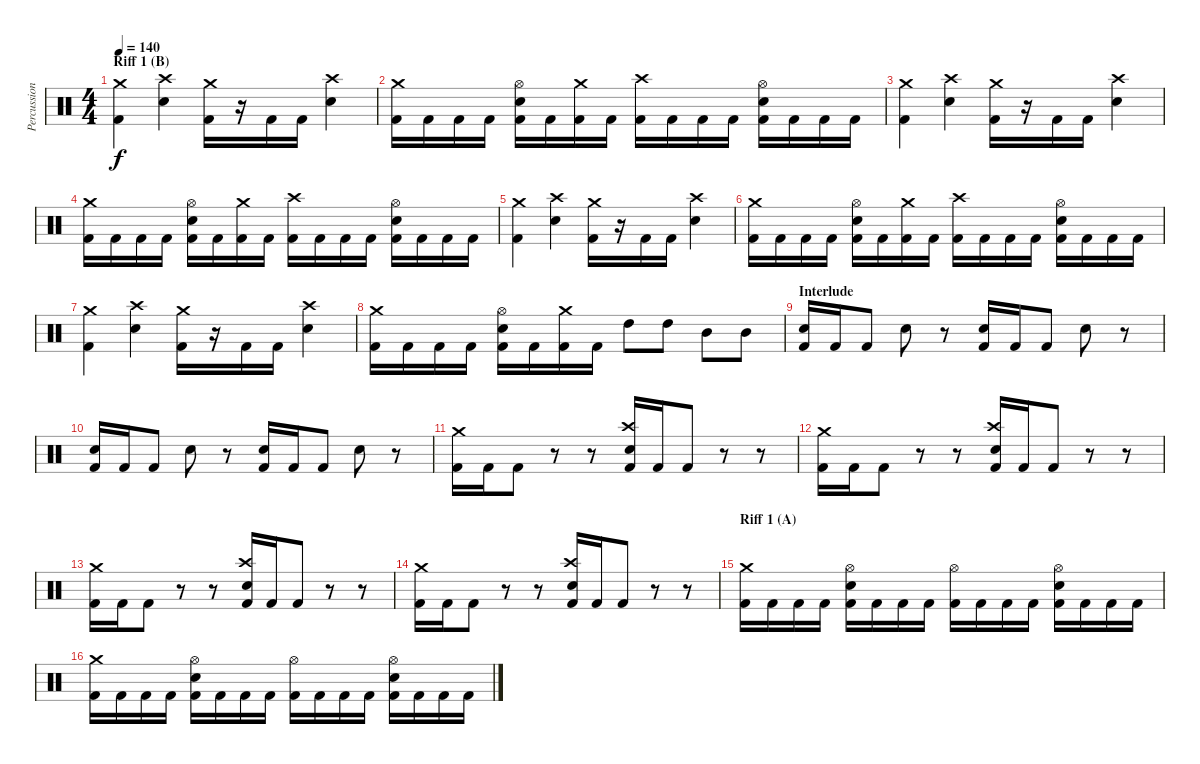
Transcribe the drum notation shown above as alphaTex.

\track ("Percussions" "Percussion") {instrument percussion}
\staff {score}
\articulation defaults
\ts (4 4)
\section ("" "Riff 1 (B)")
\tempo 140
\clef neutral
\ks c
("Crash medium (hit)" "Kick (hit) 2").4{dy f} ("Crash high (hit)" "Snare (hit) 2").4 ("Crash medium (hit)" "Kick (hit) 2").16 r.16 "Kick (hit) 2".16 "Kick (hit) 2".16 ("Crash high (hit)" "Snare (hit) 2").4 |
("Crash medium (hit)" "Kick (hit) 2").16 "Kick (hit) 2".16 "Kick (hit) 2".16 "Kick (hit) 2".16 ("Hi-Hat (open)" "Snare (hit) 2" "Kick (hit) 2").16 "Kick (hit) 2".16 ("Crash medium (hit)" "Kick (hit) 2").16 "Kick (hit) 2".16 ("Crash high (hit)" "Kick (hit) 2").16 "Kick (hit) 2".16 "Kick (hit) 2".16 "Kick (hit) 2".16 ("Hi-Hat (open)" "Snare (hit) 2" "Kick (hit) 2").16 "Kick (hit) 2".16 "Kick (hit) 2".16 "Kick (hit) 2".16 |
("Crash medium (hit)" "Kick (hit) 2").4 ("Crash high (hit)" "Snare (hit) 2").4 ("Crash medium (hit)" "Kick (hit) 2").16 r.16 "Kick (hit) 2".16 "Kick (hit) 2".16 ("Crash high (hit)" "Snare (hit) 2").4 |
("Crash medium (hit)" "Kick (hit) 2").16 "Kick (hit) 2".16 "Kick (hit) 2".16 "Kick (hit) 2".16 ("Hi-Hat (open)" "Snare (hit) 2" "Kick (hit) 2").16 "Kick (hit) 2".16 ("Crash medium (hit)" "Kick (hit) 2").16 "Kick (hit) 2".16 ("Crash high (hit)" "Kick (hit) 2").16 "Kick (hit) 2".16 "Kick (hit) 2".16 "Kick (hit) 2".16 ("Hi-Hat (open)" "Snare (hit) 2" "Kick (hit) 2").16 "Kick (hit) 2".16 "Kick (hit) 2".16 "Kick (hit) 2".16 |
("Crash medium (hit)" "Kick (hit) 2").4 ("Crash high (hit)" "Snare (hit) 2").4 ("Crash medium (hit)" "Kick (hit) 2").16 r.16 "Kick (hit) 2".16 "Kick (hit) 2".16 ("Crash high (hit)" "Snare (hit) 2").4 |
("Crash medium (hit)" "Kick (hit) 2").16 "Kick (hit) 2".16 "Kick (hit) 2".16 "Kick (hit) 2".16 ("Hi-Hat (open)" "Snare (hit) 2" "Kick (hit) 2").16 "Kick (hit) 2".16 ("Crash medium (hit)" "Kick (hit) 2").16 "Kick (hit) 2".16 ("Crash high (hit)" "Kick (hit) 2").16 "Kick (hit) 2".16 "Kick (hit) 2".16 "Kick (hit) 2".16 ("Hi-Hat (open)" "Snare (hit) 2" "Kick (hit) 2").16 "Kick (hit) 2".16 "Kick (hit) 2".16 "Kick (hit) 2".16 |
("Crash medium (hit)" "Kick (hit) 2").4 ("Crash high (hit)" "Snare (hit) 2").4 ("Crash medium (hit)" "Kick (hit) 2").16 r.16 "Kick (hit) 2".16 "Kick (hit) 2".16 ("Crash high (hit)" "Snare (hit) 2").4 |
("Crash medium (hit)" "Kick (hit) 2").16 "Kick (hit) 2".16 "Kick (hit) 2".16 "Kick (hit) 2".16 ("Hi-Hat (open)" "Snare (hit) 2" "Kick (hit) 2").16 "Kick (hit) 2".16 ("Crash medium (hit)" "Kick (hit) 2").16 "Kick (hit) 2".16 "High Tom (hit)".8 "High Tom (hit)".8 "Mid Tom (hit)".8 "Mid Tom (hit)".8 |
\section ("" "Interlude")
("Snare (hit) 2" "Kick (hit) 2").16 "Kick (hit) 2".16 "Kick (hit) 2".8 "Snare (hit) 2".8 r.8 ("Snare (hit) 2" "Kick (hit) 2").16 "Kick (hit) 2".16 "Kick (hit) 2".8 "Snare (hit) 2".8 r.8 |
("Snare (hit) 2" "Kick (hit) 2").16 "Kick (hit) 2".16 "Kick (hit) 2".8 "Snare (hit) 2".8 r.8 ("Snare (hit) 2" "Kick (hit) 2").16 "Kick (hit) 2".16 "Kick (hit) 2".8 "Snare (hit) 2".8 r.8 |
("Crash medium (hit)" "Kick (hit) 2").16 "Kick (hit) 2".16 "Kick (hit) 2".8 r.8 r.8 ("Crash high (hit)" "Snare (hit) 2" "Kick (hit) 2").16 "Kick (hit) 2".16 "Kick (hit) 2".8 r.8 r.8 |
("Crash medium (hit)" "Kick (hit) 2").16 "Kick (hit) 2".16 "Kick (hit) 2".8 r.8 r.8 ("Crash high (hit)" "Snare (hit) 2" "Kick (hit) 2").16 "Kick (hit) 2".16 "Kick (hit) 2".8 r.8 r.8 |
("Crash medium (hit)" "Kick (hit) 2").16 "Kick (hit) 2".16 "Kick (hit) 2".8 r.8 r.8 ("Crash high (hit)" "Snare (hit) 2" "Kick (hit) 2").16 "Kick (hit) 2".16 "Kick (hit) 2".8 r.8 r.8 |
("Crash medium (hit)" "Kick (hit) 2").16 "Kick (hit) 2".16 "Kick (hit) 2".8 r.8 r.8 ("Crash high (hit)" "Snare (hit) 2" "Kick (hit) 2").16 "Kick (hit) 2".16 "Kick (hit) 2".8 r.8 r.8 |
\section ("" "Riff 1 (A)")
("Crash medium (hit)" "Kick (hit) 2").16 "Kick (hit) 2".16 "Kick (hit) 2".16 "Kick (hit) 2".16 ("Hi-Hat (open)" "Snare (hit) 2" "Kick (hit) 2").16 "Kick (hit) 2".16 "Kick (hit) 2".16 "Kick (hit) 2".16 ("Hi-Hat (open)" "Kick (hit) 2").16 "Kick (hit) 2".16 "Kick (hit) 2".16 "Kick (hit) 2".16 ("Hi-Hat (open)" "Snare (hit) 2" "Kick (hit) 2").16 "Kick (hit) 2".16 "Kick (hit) 2".16 "Kick (hit) 2".16 |
("Crash medium (hit)" "Kick (hit) 2").16 "Kick (hit) 2".16 "Kick (hit) 2".16 "Kick (hit) 2".16 ("Hi-Hat (open)" "Snare (hit) 2" "Kick (hit) 2").16 "Kick (hit) 2".16 "Kick (hit) 2".16 "Kick (hit) 2".16 ("Hi-Hat (open)" "Kick (hit) 2").16 "Kick (hit) 2".16 "Kick (hit) 2".16 "Kick (hit) 2".16 ("Hi-Hat (open)" "Snare (hit) 2" "Kick (hit) 2").16 "Kick (hit) 2".16 "Kick (hit) 2".16 "Kick (hit) 2".16
